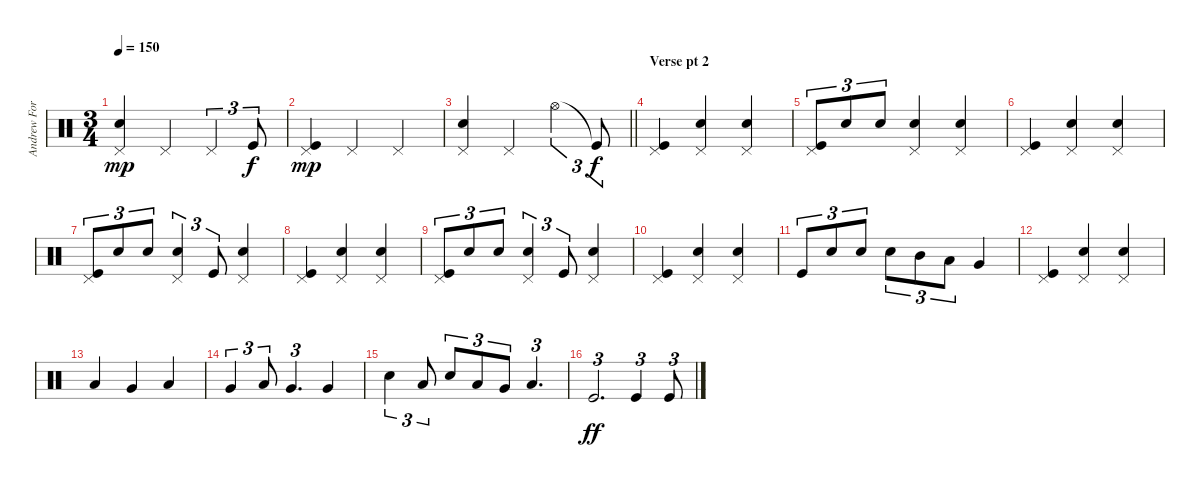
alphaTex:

\track ("Andrew Forsman" "Andrew For") {instrument percussion}
\staff {score}
\articulation defaults
\ts (3 4)
\tempo 150
\clef neutral
\ks c
("Pedal Hi-Hat (hit)" "Electric Snare (hit)").4{dy mp} "Pedal Hi-Hat (hit)".4 "Pedal Hi-Hat (hit)".4{tu (3 2)} "Kick (hit)".8{tu (3 2) dy f} |
("Pedal Hi-Hat (hit)" "Kick (hit)").4{dy mp} "Pedal Hi-Hat (hit)".4 "Pedal Hi-Hat (hit)".4 |
\barLineRight lightlight
("Pedal Hi-Hat (hit)" "Electric Snare (hit)").4 "Pedal Hi-Hat (hit)".4 "Hi-Hat (open)".4{tu (3 2)} "Kick (hit)"{t}.8{tu (3 2) dy f} |
\section ("" "Verse pt 2")
("Pedal Hi-Hat (hit)" "Kick (hit)").4 ("Pedal Hi-Hat (hit)" "Electric Snare (hit)").4 ("Pedal Hi-Hat (hit)" "Electric Snare (hit)").4 |
("Pedal Hi-Hat (hit)" "Kick (hit)").8{tu (3 2)} "Electric Snare (hit)".8{tu (3 2)} "Electric Snare (hit)".8{tu (3 2)} ("Pedal Hi-Hat (hit)" "Electric Snare (hit)").4 ("Pedal Hi-Hat (hit)" "Electric Snare (hit)").4 |
("Pedal Hi-Hat (hit)" "Kick (hit)").4 ("Pedal Hi-Hat (hit)" "Electric Snare (hit)").4 ("Pedal Hi-Hat (hit)" "Electric Snare (hit)").4 |
("Pedal Hi-Hat (hit)" "Kick (hit)").8{tu (3 2)} "Electric Snare (hit)".8{tu (3 2)} "Electric Snare (hit)".8{tu (3 2)} ("Pedal Hi-Hat (hit)" "Electric Snare (hit)").4{tu (3 2)} "Kick (hit)".8{tu (3 2)} ("Pedal Hi-Hat (hit)" "Electric Snare (hit)").4 |
("Pedal Hi-Hat (hit)" "Kick (hit)").4 ("Pedal Hi-Hat (hit)" "Electric Snare (hit)").4 ("Pedal Hi-Hat (hit)" "Electric Snare (hit)").4 |
("Pedal Hi-Hat (hit)" "Kick (hit)").8{tu (3 2)} "Electric Snare (hit)".8{tu (3 2)} "Electric Snare (hit)".8{tu (3 2)} ("Pedal Hi-Hat (hit)" "Electric Snare (hit)").4{tu (3 2)} "Kick (hit)".8{tu (3 2)} ("Pedal Hi-Hat (hit)" "Electric Snare (hit)").4 |
("Pedal Hi-Hat (hit)" "Kick (hit)").4 ("Pedal Hi-Hat (hit)" "Electric Snare (hit)").4 ("Pedal Hi-Hat (hit)" "Electric Snare (hit)").4 |
"Kick (hit)".8{tu (3 2)} "Electric Snare (hit)".8{tu (3 2)} "Electric Snare (hit)".8{tu (3 2)} "Electric Snare (hit)".8{tu (3 2)} "Mid Tom (hit)".8{tu (3 2)} "Low Tom (hit)".8{tu (3 2)} "Very Low Tom (hit)".4 |
("Pedal Hi-Hat (hit)" "Kick (hit)").4 ("Pedal Hi-Hat (hit)" "Electric Snare (hit)").4 ("Pedal Hi-Hat (hit)" "Electric Snare (hit)").4 |
"Low Tom (hit)".4 "Very Low Tom (hit)".4 "Low Floor Tom (hit)".4 |
"Very Low Tom (hit)".4{tu (3 2)} "Low Floor Tom (hit)".8{tu (3 2)} "Very Low Tom (hit)".4{d tu (3 2)} "Very Low Tom (hit)".4 |
"Electric Snare (hit)".4{tu (3 2)} "Low Tom (hit)".8{tu (3 2)} "Electric Snare (hit)".8{tu (3 2)} "Low Tom (hit)".8{tu (3 2)} "Very Low Tom (hit)".8{tu (3 2)} "Low Floor Tom (hit)".4{d tu (3 2)} |
"Kick (hit)".2{d tu (3 2) dy ff} "Kick (hit)".4{tu (3 2)} "Kick (hit)".8{tu (3 2)}
